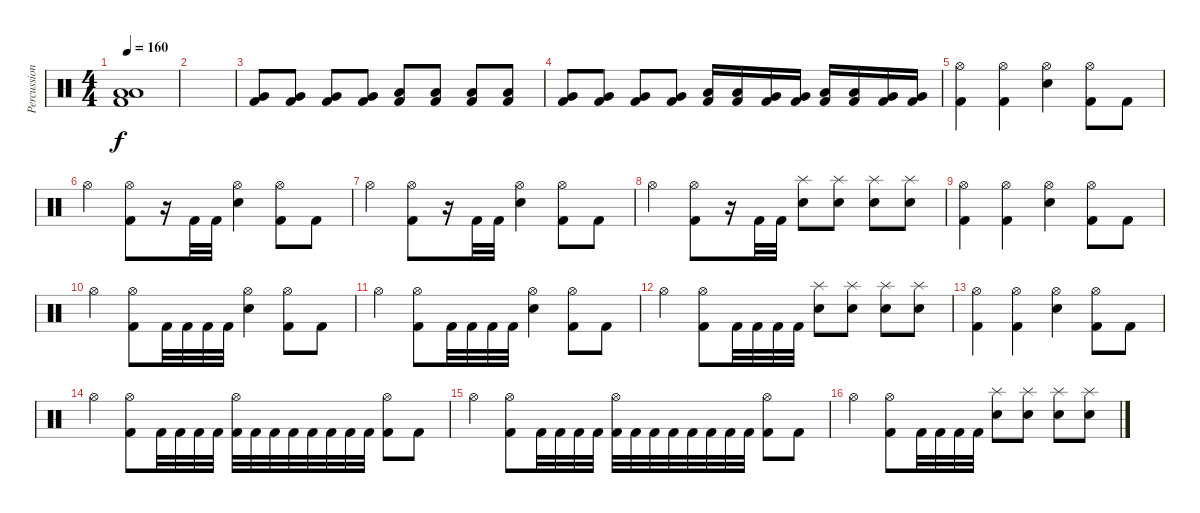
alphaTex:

\track ("Percussion" "Percussion") {instrument percussion}
\staff {score}
\articulation defaults
\ts (4 4)
\tempo 160
\clef neutral
\ks c
("Kick (hit) 2" "Low Tom (hit)" "Low Floor Tom (hit)").1{dy f} |
|
("Kick (hit) 2" "Very Low Tom (hit)").8 ("Kick (hit) 2" "Very Low Tom (hit)").8 ("Kick (hit) 2" "Very Low Tom (hit)").8 ("Kick (hit) 2" "Very Low Tom (hit)").8 ("Kick (hit) 2" "Low Floor Tom (hit)").8 ("Kick (hit) 2" "Low Floor Tom (hit)").8 ("Kick (hit) 2" "Low Floor Tom (hit)").8 ("Kick (hit) 2" "Low Floor Tom (hit)").8 |
("Kick (hit) 2" "Very Low Tom (hit)").8 ("Kick (hit) 2" "Very Low Tom (hit)").8 ("Kick (hit) 2" "Very Low Tom (hit)").8 ("Kick (hit) 2" "Very Low Tom (hit)").8 ("Kick (hit) 2" "Low Floor Tom (hit)").16 ("Kick (hit) 2" "Low Floor Tom (hit)").16 ("Kick (hit) 2" "Very Low Tom (hit)").16 ("Kick (hit) 2" "Very Low Tom (hit)").16 ("Kick (hit) 2" "Low Floor Tom (hit)").16 ("Kick (hit) 2" "Low Floor Tom (hit)").16 ("Kick (hit) 2" "Very Low Tom (hit)").16 ("Kick (hit) 2" "Very Low Tom (hit)").16 |
("Kick (hit) 2" "Hi-Hat (open)").4 ("Kick (hit) 2" "Hi-Hat (open)").4 ("Electric Snare (hit)" "Hi-Hat (open)").4 ("Kick (hit) 2" "Hi-Hat (open)").8 "Kick (hit) 2".8 |
"Hi-Hat (open)".4 ("Kick (hit) 2" "Hi-Hat (open)").8 r.16 "Kick (hit) 2".32 "Kick (hit) 2".32 ("Electric Snare (hit)" "Hi-Hat (open)").4 ("Kick (hit) 2" "Hi-Hat (open)").8 "Kick (hit) 2".8 |
"Hi-Hat (open)".4 ("Kick (hit) 2" "Hi-Hat (open)").8 r.16 "Kick (hit) 2".32 "Kick (hit) 2".32 ("Electric Snare (hit)" "Hi-Hat (open)").4 ("Kick (hit) 2" "Hi-Hat (open)").8 "Kick (hit) 2".8 |
"Hi-Hat (open)".4 ("Kick (hit) 2" "Hi-Hat (open)").8 r.16 "Kick (hit) 2".32 "Kick (hit) 2".32 ("Electric Snare (hit)" "Splash (hit)").8 ("Electric Snare (hit)" "Splash (hit)").8 ("Electric Snare (hit)" "Splash (hit)").8 ("Electric Snare (hit)" "Splash (hit)").8 |
("Kick (hit) 2" "Hi-Hat (open)").4 ("Kick (hit) 2" "Hi-Hat (open)").4 ("Electric Snare (hit)" "Hi-Hat (open)").4 ("Kick (hit) 2" "Hi-Hat (open)").8 "Kick (hit) 2".8 |
"Hi-Hat (open)".4 ("Kick (hit) 2" "Hi-Hat (open)").8 "Kick (hit) 2".32 "Kick (hit) 2".32 "Kick (hit) 2".32 "Kick (hit) 2".32 ("Electric Snare (hit)" "Hi-Hat (open)").4 ("Kick (hit) 2" "Hi-Hat (open)").8 "Kick (hit) 2".8 |
"Hi-Hat (open)".4 ("Kick (hit) 2" "Hi-Hat (open)").8 "Kick (hit) 2".32 "Kick (hit) 2".32 "Kick (hit) 2".32 "Kick (hit) 2".32 ("Electric Snare (hit)" "Hi-Hat (open)").4 ("Kick (hit) 2" "Hi-Hat (open)").8 "Kick (hit) 2".8 |
"Hi-Hat (open)".4 ("Kick (hit) 2" "Hi-Hat (open)").8 "Kick (hit) 2".32 "Kick (hit) 2".32 "Kick (hit) 2".32 "Kick (hit) 2".32 ("Electric Snare (hit)" "Splash (hit)").8 ("Electric Snare (hit)" "Splash (hit)").8 ("Electric Snare (hit)" "Splash (hit)").8 ("Electric Snare (hit)" "Splash (hit)").8 |
("Kick (hit) 2" "Hi-Hat (open)").4 ("Kick (hit) 2" "Hi-Hat (open)").4 ("Electric Snare (hit)" "Hi-Hat (open)").4 ("Kick (hit) 2" "Hi-Hat (open)").8 "Kick (hit) 2".8 |
"Hi-Hat (open)".4 ("Kick (hit) 2" "Hi-Hat (open)").8 "Kick (hit) 2".32 "Kick (hit) 2".32 "Kick (hit) 2".32 "Kick (hit) 2".32 ("Kick (hit) 2" "Hi-Hat (open)").32 "Kick (hit) 2".32 "Kick (hit) 2".32 "Kick (hit) 2".32 "Kick (hit) 2".32 "Kick (hit) 2".32 "Kick (hit) 2".32 "Kick (hit) 2".32 ("Kick (hit) 2" "Hi-Hat (open)").8 "Kick (hit) 2".8 |
"Hi-Hat (open)".4 ("Kick (hit) 2" "Hi-Hat (open)").8 "Kick (hit) 2".32 "Kick (hit) 2".32 "Kick (hit) 2".32 "Kick (hit) 2".32 ("Kick (hit) 2" "Hi-Hat (open)").32 "Kick (hit) 2".32 "Kick (hit) 2".32 "Kick (hit) 2".32 "Kick (hit) 2".32 "Kick (hit) 2".32 "Kick (hit) 2".32 "Kick (hit) 2".32 ("Kick (hit) 2" "Hi-Hat (open)").8 "Kick (hit) 2".8 |
"Hi-Hat (open)".4 ("Kick (hit) 2" "Hi-Hat (open)").8 "Kick (hit) 2".32 "Kick (hit) 2".32 "Kick (hit) 2".32 "Kick (hit) 2".32 ("Electric Snare (hit)" "Splash (hit)").8 ("Electric Snare (hit)" "Splash (hit)").8 ("Electric Snare (hit)" "Splash (hit)").8 ("Electric Snare (hit)" "Splash (hit)").8
